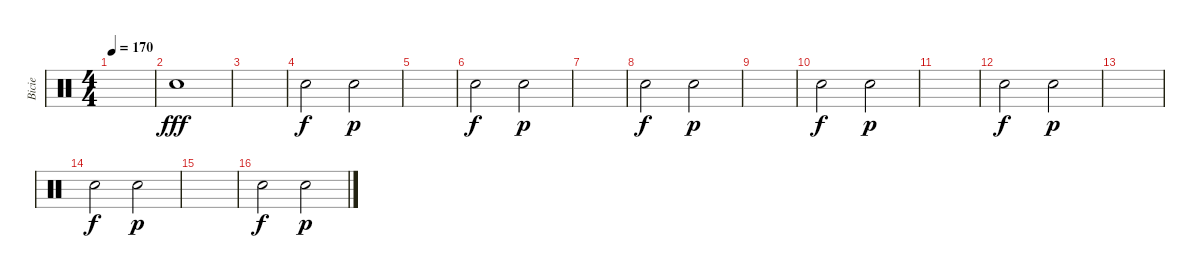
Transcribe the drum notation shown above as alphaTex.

\track ("Bicie" "Bicie") {instrument percussion}
\staff {score}
\articulation defaults
\ts (4 4)
\tempo 170
\clef neutral
\ks c
|
"Snare (hit) 2".1{dy fff} |
|
"Snare (hit) 2".2{dy f} "Snare (hit) 2".2{dy p} |
|
"Snare (hit) 2".2{dy f} "Snare (hit) 2".2{dy p} |
|
"Snare (hit) 2".2{dy f} "Snare (hit) 2".2{dy p} |
|
"Snare (hit) 2".2{dy f} "Snare (hit) 2".2{dy p} |
|
"Snare (hit) 2".2{dy f} "Snare (hit) 2".2{dy p} |
|
"Snare (hit) 2".2{dy f} "Snare (hit) 2".2{dy p} |
|
"Snare (hit) 2".2{dy f} "Snare (hit) 2".2{dy p}
